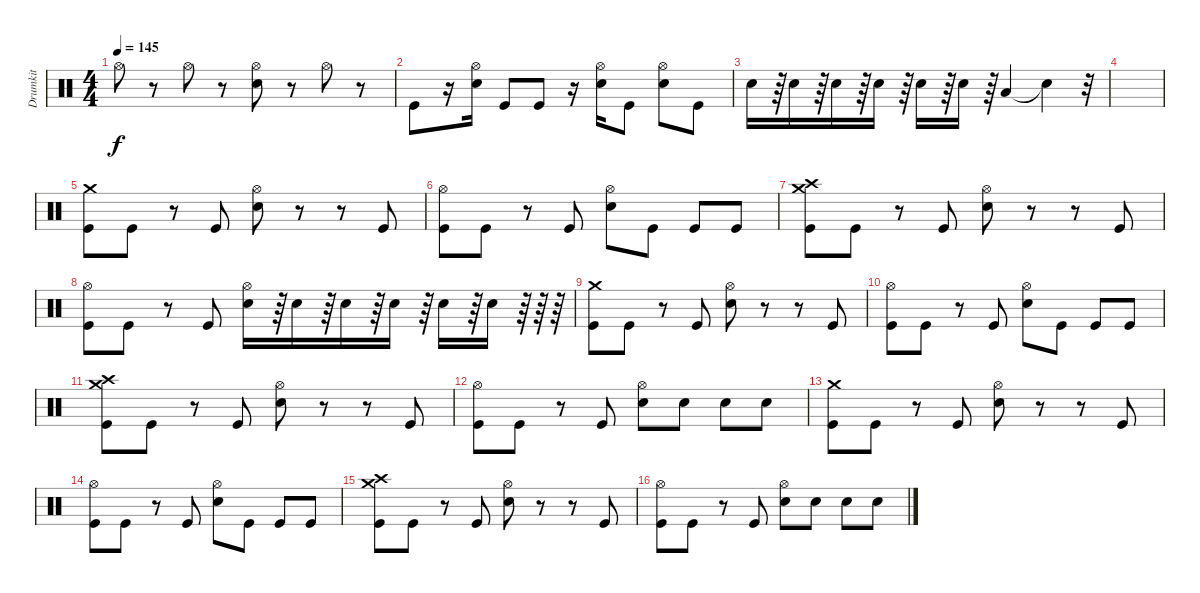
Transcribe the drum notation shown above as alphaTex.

\track ("Drumkit" "Drumkit") {instrument percussion}
\staff {score}
\articulation defaults
\ts (4 4)
\tempo 145
\clef neutral
\ks c "Hi-Hat (open)".8{dy f}
r.8 "Hi-Hat (open)".8 r.8 ("Hi-Hat (open)" "Electric Snare (hit)").8 r.8 "Hi-Hat (open)".8 r.8 |
"Kick (hit)".8 r.16 ("Hi-Hat (open)" "Electric Snare (hit)").16 "Kick (hit)".8 "Kick (hit)".8 r.16 ("Hi-Hat (open)" "Electric Snare (hit)").16 "Kick (hit)".8 ("Hi-Hat (open)" "Electric Snare (hit)").8 "Kick (hit)".8 |
"Electric Snare (hit)".16 r.64 "Electric Snare (hit)".16 r.64 "Electric Snare (hit)".16 r.64 "Electric Snare (hit)".16 r.64 "Electric Snare (hit)".16 r.64 "Electric Snare (hit)".16 r.64 "Low Tom (hit)".4 "Snare (hit)"{t}.4 r.32 |
|
("Crash medium (hit)" "Kick (hit)").8 "Kick (hit)".8 r.8 "Kick (hit)".8 ("Hi-Hat (open)" "Electric Snare (hit)").8 r.8 r.8 "Kick (hit)".8 |
("Hi-Hat (open)" "Kick (hit)").8 "Kick (hit)".8 r.8 "Kick (hit)".8 ("Hi-Hat (open)" "Electric Snare (hit)").8 "Kick (hit)".8 "Kick (hit)".8 "Kick (hit)".8 |
("Crash medium (hit)" "Crash high (hit)" "Kick (hit)").8 "Kick (hit)".8 r.8 "Kick (hit)".8 ("Hi-Hat (open)" "Electric Snare (hit)").8 r.8 r.8 "Kick (hit)".8 |
("Hi-Hat (open)" "Kick (hit)").8 "Kick (hit)".8 r.8 "Kick (hit)".8 ("Hi-Hat (open)" "Electric Snare (hit)").16 r.64 "Electric Snare (hit)".16 r.64 "Electric Snare (hit)".16 r.64 "Electric Snare (hit)".16 r.64 "Electric Snare (hit)".16 r.64 "Electric Snare (hit)".16 r.64 r.64 r.64 |
("Crash medium (hit)" "Kick (hit)").8 "Kick (hit)".8 r.8 "Kick (hit)".8 ("Hi-Hat (open)" "Electric Snare (hit)").8 r.8 r.8 "Kick (hit)".8 |
("Hi-Hat (open)" "Kick (hit)").8 "Kick (hit)".8 r.8 "Kick (hit)".8 ("Hi-Hat (open)" "Electric Snare (hit)").8 "Kick (hit)".8 "Kick (hit)".8 "Kick (hit)".8 |
("Crash medium (hit)" "Crash high (hit)" "Kick (hit)").8 "Kick (hit)".8 r.8 "Kick (hit)".8 ("Hi-Hat (open)" "Electric Snare (hit)").8 r.8 r.8 "Kick (hit)".8 |
("Hi-Hat (open)" "Kick (hit)").8 "Kick (hit)".8 r.8 "Kick (hit)".8 ("Hi-Hat (open)" "Electric Snare (hit)").8 "Electric Snare (hit)".8 "Electric Snare (hit)".8 "Electric Snare (hit)".8 |
("Crash medium (hit)" "Kick (hit)").8 "Kick (hit)".8 r.8 "Kick (hit)".8 ("Hi-Hat (open)" "Electric Snare (hit)").8 r.8 r.8 "Kick (hit)".8 |
("Hi-Hat (open)" "Kick (hit)").8 "Kick (hit)".8 r.8 "Kick (hit)".8 ("Hi-Hat (open)" "Electric Snare (hit)").8 "Kick (hit)".8 "Kick (hit)".8 "Kick (hit)".8 |
("Crash medium (hit)" "Crash high (hit)" "Kick (hit)").8 "Kick (hit)".8 r.8 "Kick (hit)".8 ("Hi-Hat (open)" "Electric Snare (hit)").8 r.8 r.8 "Kick (hit)".8 |
("Hi-Hat (open)" "Kick (hit)").8 "Kick (hit)".8 r.8 "Kick (hit)".8 ("Hi-Hat (open)" "Electric Snare (hit)").8 "Electric Snare (hit)".8 "Electric Snare (hit)".8 "Electric Snare (hit)".8
